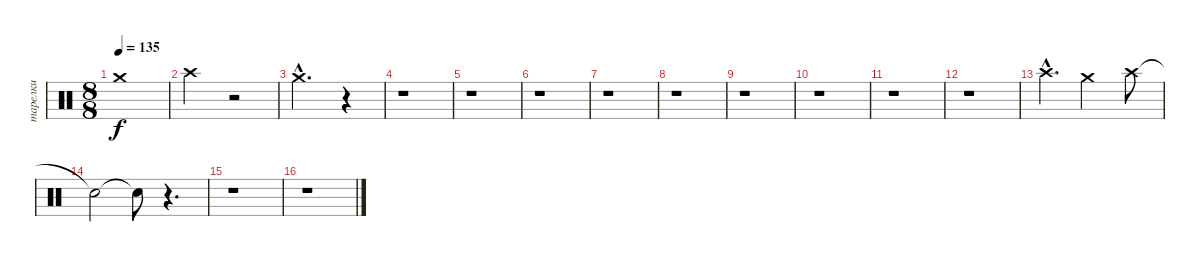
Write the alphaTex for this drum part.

\track ("тарелки" "тарелки") {instrument percussion}
\staff {score}
\articulation defaults
\ts (8 8)
\tempo 135
\clef neutral
\ks c "Crash medium (hit)".1{dy f}
|
"Crash high (hit)".2 r.2 |
"Crash medium (hit)"{hac}.2{d} r.4 |
r.1 |
r.1 |
r.1 |
r.1 |
r.1 |
r.1 |
r.1 |
r.1 |
r.1 |
"Crash high (hit)"{hac}.4{d} "Crash medium (hit)".2 "Crash high (hit)".8 |
"Snare (hit)"{t}.2 "Snare (hit)"{t}.8 r.4{d} |
r.1 |
r.1
